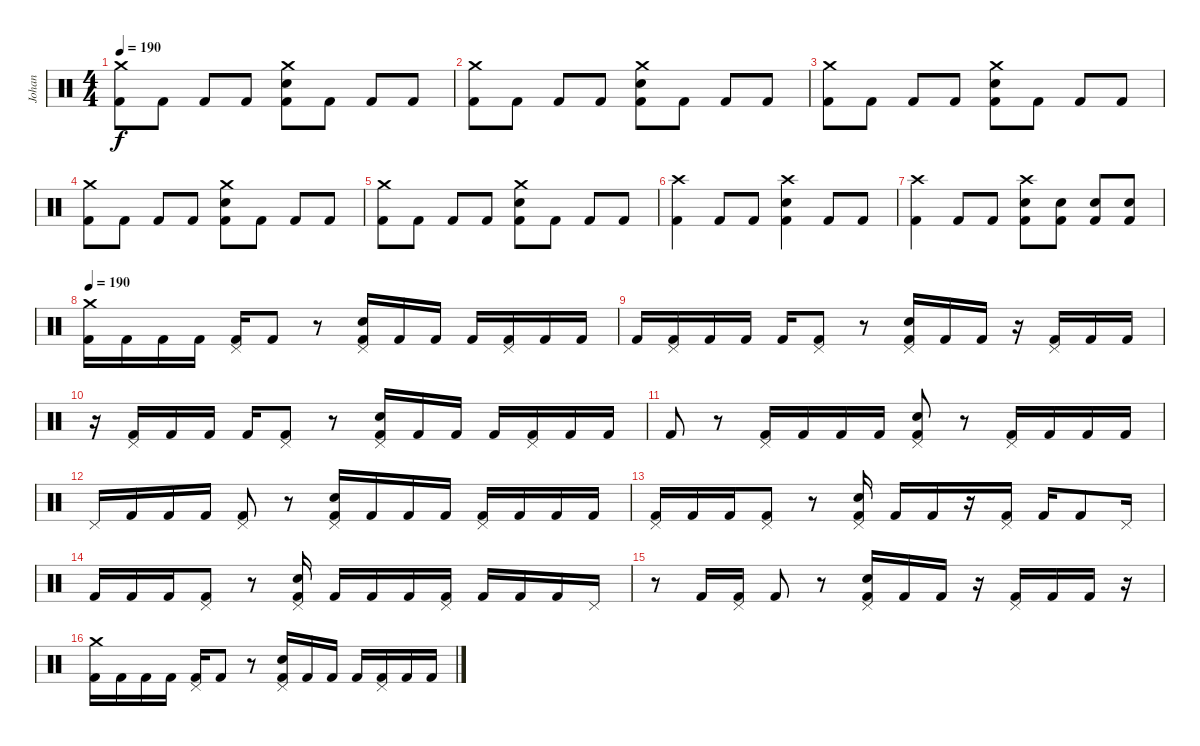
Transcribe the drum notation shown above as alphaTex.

\track ("Johan" "Johan") {instrument percussion}
\staff {score}
\articulation defaults
\ts (4 4)
\tempo 190
\clef neutral
\ks c
("Crash medium (hit)" "Kick (hit) 2").8{dy f} "Kick (hit) 2".8 "Kick (hit) 2".8 "Kick (hit) 2".8 ("Electric Snare (hit)" "Crash medium (hit)" "Kick (hit) 2").8 "Kick (hit) 2".8 "Kick (hit) 2".8 "Kick (hit) 2".8 |
("Crash medium (hit)" "Kick (hit) 2").8 "Kick (hit) 2".8 "Kick (hit) 2".8 "Kick (hit) 2".8 ("Electric Snare (hit)" "Crash medium (hit)" "Kick (hit) 2").8 "Kick (hit) 2".8 "Kick (hit) 2".8 "Kick (hit) 2".8 |
("Crash medium (hit)" "Kick (hit) 2").8 "Kick (hit) 2".8 "Kick (hit) 2".8 "Kick (hit) 2".8 ("Electric Snare (hit)" "Crash medium (hit)" "Kick (hit) 2").8 "Kick (hit) 2".8 "Kick (hit) 2".8 "Kick (hit) 2".8 |
("Crash medium (hit)" "Kick (hit) 2").8 "Kick (hit) 2".8 "Kick (hit) 2".8 "Kick (hit) 2".8 ("Electric Snare (hit)" "Crash medium (hit)" "Kick (hit) 2").8 "Kick (hit) 2".8 "Kick (hit) 2".8 "Kick (hit) 2".8 |
("Crash medium (hit)" "Kick (hit) 2").8 "Kick (hit) 2".8 "Kick (hit) 2".8 "Kick (hit) 2".8 ("Electric Snare (hit)" "Crash medium (hit)" "Kick (hit) 2").8 "Kick (hit) 2".8 "Kick (hit) 2".8 "Kick (hit) 2".8 |
("Crash high (hit)" "Kick (hit) 2").4 "Kick (hit) 2".8 "Kick (hit) 2".8 ("Electric Snare (hit)" "Crash high (hit)" "Kick (hit) 2").4 "Kick (hit) 2".8 "Kick (hit) 2".8 |
("Crash high (hit)" "Kick (hit) 2").4 "Kick (hit) 2".8 "Kick (hit) 2".8 ("Electric Snare (hit)" "Crash high (hit)" "Kick (hit) 2").8 ("Electric Snare (hit)" "Kick (hit) 2").8 ("Electric Snare (hit)" "Kick (hit) 2").8 ("Electric Snare (hit)" "Kick (hit) 2").8 |
\tempo 190
("Crash medium (hit)" "Kick (hit) 2").16 "Kick (hit) 2".16 "Kick (hit) 2".16 "Kick (hit) 2".16 ("Pedal Hi-Hat (hit)" "Kick (hit) 2").16 "Kick (hit) 2".8 r.8 ("Electric Snare (hit)" "Pedal Hi-Hat (hit)" "Kick (hit) 2").16 "Kick (hit) 2".16 "Kick (hit) 2".16 "Kick (hit) 2".16 ("Pedal Hi-Hat (hit)" "Kick (hit) 2").16 "Kick (hit) 2".16 "Kick (hit) 2".16 |
"Kick (hit) 2".16 ("Pedal Hi-Hat (hit)" "Kick (hit) 2").16 "Kick (hit) 2".16 "Kick (hit) 2".16 "Kick (hit) 2".16 ("Pedal Hi-Hat (hit)" "Kick (hit) 2").8 r.8 ("Electric Snare (hit)" "Pedal Hi-Hat (hit)" "Kick (hit) 2").16 "Kick (hit) 2".16 "Kick (hit) 2".16 r.16 ("Pedal Hi-Hat (hit)" "Kick (hit) 2").16 "Kick (hit) 2".16 "Kick (hit) 2".16 |
r.16 ("Pedal Hi-Hat (hit)" "Kick (hit) 2").16 "Kick (hit) 2".16 "Kick (hit) 2".16 "Kick (hit) 2".16 ("Pedal Hi-Hat (hit)" "Kick (hit) 2").8 r.8 ("Electric Snare (hit)" "Pedal Hi-Hat (hit)" "Kick (hit) 2").16 "Kick (hit) 2".16 "Kick (hit) 2".16 "Kick (hit) 2".16 ("Pedal Hi-Hat (hit)" "Kick (hit) 2").16 "Kick (hit) 2".16 "Kick (hit) 2".16 |
"Kick (hit) 2".8 r.8 ("Pedal Hi-Hat (hit)" "Kick (hit) 2").16 "Kick (hit) 2".16 "Kick (hit) 2".16 "Kick (hit) 2".16 ("Electric Snare (hit)" "Pedal Hi-Hat (hit)" "Kick (hit) 2").8 r.8 ("Pedal Hi-Hat (hit)" "Kick (hit) 2").16 "Kick (hit) 2".16 "Kick (hit) 2".16 "Kick (hit) 2".16 |
"Pedal Hi-Hat (hit)".16 "Kick (hit) 2".16 "Kick (hit) 2".16 "Kick (hit) 2".16 ("Pedal Hi-Hat (hit)" "Kick (hit) 2").8 r.8 ("Electric Snare (hit)" "Pedal Hi-Hat (hit)" "Kick (hit) 2").16 "Kick (hit) 2".16 "Kick (hit) 2".16 "Kick (hit) 2".16 ("Pedal Hi-Hat (hit)" "Kick (hit) 2").16 "Kick (hit) 2".16 "Kick (hit) 2".16 "Kick (hit) 2".16 |
("Pedal Hi-Hat (hit)" "Kick (hit) 2").16 "Kick (hit) 2".16 "Kick (hit) 2".16 ("Pedal Hi-Hat (hit)" "Kick (hit) 2").8 r.8 ("Electric Snare (hit)" "Pedal Hi-Hat (hit)" "Kick (hit) 2").16 "Kick (hit) 2".16 "Kick (hit) 2".16 r.16 ("Pedal Hi-Hat (hit)" "Kick (hit) 2").16 "Kick (hit) 2".16 "Kick (hit) 2".8 "Pedal Hi-Hat (hit)".16 |
"Kick (hit) 2".16 "Kick (hit) 2".16 "Kick (hit) 2".16 ("Pedal Hi-Hat (hit)" "Kick (hit) 2").8 r.8 ("Electric Snare (hit)" "Pedal Hi-Hat (hit)" "Kick (hit) 2").16 "Kick (hit) 2".16 "Kick (hit) 2".16 "Kick (hit) 2".16 ("Pedal Hi-Hat (hit)" "Kick (hit) 2").16 "Kick (hit) 2".16 "Kick (hit) 2".16 "Kick (hit) 2".16 "Pedal Hi-Hat (hit)".16 |
r.8 "Kick (hit) 2".16 ("Pedal Hi-Hat (hit)" "Kick (hit) 2").16 "Kick (hit) 2".8 r.8 ("Electric Snare (hit)" "Pedal Hi-Hat (hit)" "Kick (hit) 2").16 "Kick (hit) 2".16 "Kick (hit) 2".16 r.16 ("Pedal Hi-Hat (hit)" "Kick (hit) 2").16 "Kick (hit) 2".16 "Kick (hit) 2".16 r.16 |
("Crash medium (hit)" "Kick (hit) 2").16 "Kick (hit) 2".16 "Kick (hit) 2".16 "Kick (hit) 2".16 ("Pedal Hi-Hat (hit)" "Kick (hit) 2").16 "Kick (hit) 2".8 r.8 ("Electric Snare (hit)" "Pedal Hi-Hat (hit)" "Kick (hit) 2").16 "Kick (hit) 2".16 "Kick (hit) 2".16 "Kick (hit) 2".16 ("Pedal Hi-Hat (hit)" "Kick (hit) 2").16 "Kick (hit) 2".16 "Kick (hit) 2".16
